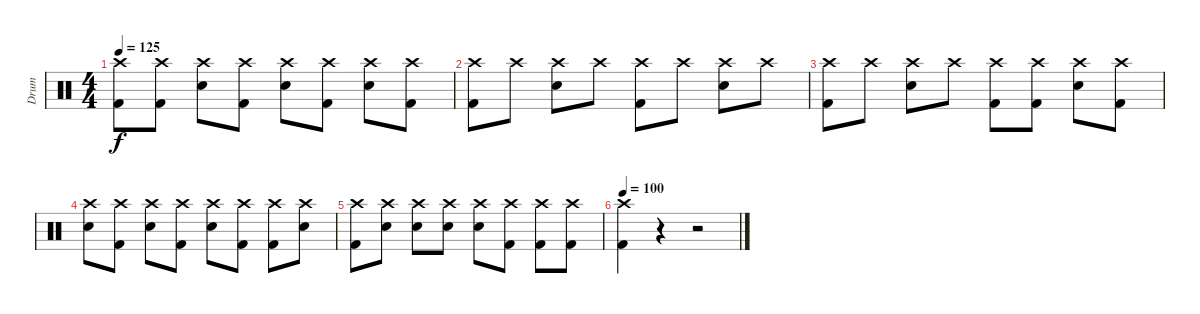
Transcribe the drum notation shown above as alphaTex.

\track ("Drum" "Drum") {instrument percussion}
\staff {score}
\articulation defaults
\ts (4 4)
\tempo 125
\clef neutral
\ks c
("Kick (hit) 2" "Crash high (hit)").8{dy f} ("Kick (hit) 2" "Crash high (hit)").8 ("Electric Snare (hit)" "Crash high (hit)").8 ("Kick (hit) 2" "Crash high (hit)").8 ("Electric Snare (hit)" "Crash high (hit)").8 ("Kick (hit) 2" "Crash high (hit)").8 ("Electric Snare (hit)" "Crash high (hit)").8 ("Kick (hit) 2" "Crash high (hit)").8 |
("Kick (hit) 2" "Crash high (hit)").8 "Crash high (hit)".8 ("Electric Snare (hit)" "Crash high (hit)").8 "Crash high (hit)".8 ("Kick (hit) 2" "Crash high (hit)").8 "Crash high (hit)".8 ("Electric Snare (hit)" "Crash high (hit)").8 "Crash high (hit)".8 |
("Kick (hit) 2" "Crash high (hit)").8 "Crash high (hit)".8 ("Electric Snare (hit)" "Crash high (hit)").8 "Crash high (hit)".8 ("Kick (hit) 2" "Crash high (hit)").8 ("Kick (hit) 2" "Crash high (hit)").8 ("Electric Snare (hit)" "Crash high (hit)").8 ("Kick (hit) 2" "Crash high (hit)").8 |
("Electric Snare (hit)" "Crash high (hit)").8 ("Kick (hit) 2" "Crash high (hit)").8 ("Electric Snare (hit)" "Crash high (hit)").8 ("Kick (hit) 2" "Crash high (hit)").8 ("Electric Snare (hit)" "Crash high (hit)").8 ("Kick (hit) 2" "Crash high (hit)").8 ("Kick (hit) 2" "Crash high (hit)").8 ("Electric Snare (hit)" "Crash high (hit)").8 |
("Kick (hit) 2" "Crash high (hit)").8 ("Electric Snare (hit)" "Crash high (hit)").8 ("Electric Snare (hit)" "Crash high (hit)").8 ("Electric Snare (hit)" "Crash high (hit)").8 ("Electric Snare (hit)" "Crash high (hit)").8 ("Kick (hit) 2" "Crash high (hit)").8 ("Kick (hit) 2" "Crash high (hit)").8 ("Kick (hit) 2" "Crash high (hit)").8 |
\tempo 100
("Kick (hit) 2" "Crash high (hit)").4 r.4 r.2
